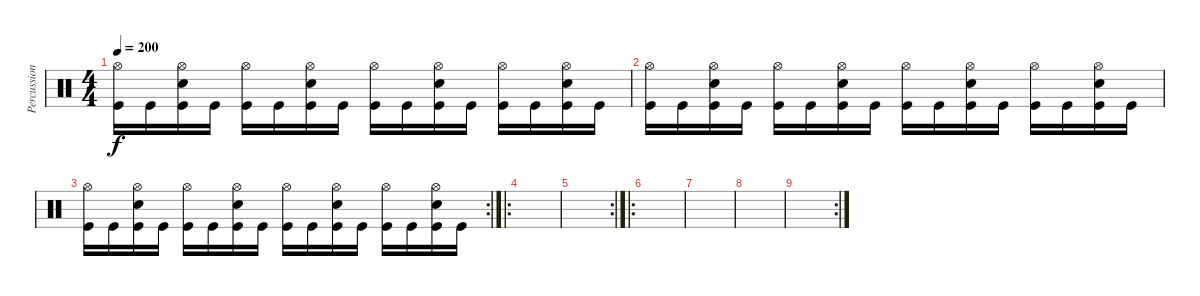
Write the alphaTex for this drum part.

\track ("Percussion" "Percussion") {instrument percussion}
\staff {score}
\articulation defaults
\ts (4 4)
\tempo 200
\clef neutral
\ks c
("Hi-Hat (open)" "Kick (hit)").16{dy f} "Kick (hit)".16 ("Hi-Hat (open)" "Snare (hit) 2" "Kick (hit)").16 "Kick (hit)".16 ("Hi-Hat (open)" "Kick (hit)").16 "Kick (hit)".16 ("Hi-Hat (open)" "Snare (hit) 2" "Kick (hit)").16 "Kick (hit)".16 ("Hi-Hat (open)" "Kick (hit)").16 "Kick (hit)".16 ("Hi-Hat (open)" "Snare (hit) 2" "Kick (hit)").16 "Kick (hit)".16 ("Hi-Hat (open)" "Kick (hit)").16 "Kick (hit)".16 ("Hi-Hat (open)" "Snare (hit) 2" "Kick (hit)").16 "Kick (hit)".16 |
("Hi-Hat (open)" "Kick (hit)").16 "Kick (hit)".16 ("Hi-Hat (open)" "Snare (hit) 2" "Kick (hit)").16 "Kick (hit)".16 ("Hi-Hat (open)" "Kick (hit)").16 "Kick (hit)".16 ("Hi-Hat (open)" "Snare (hit) 2" "Kick (hit)").16 "Kick (hit)".16 ("Hi-Hat (open)" "Kick (hit)").16 "Kick (hit)".16 ("Hi-Hat (open)" "Snare (hit) 2" "Kick (hit)").16 "Kick (hit)".16 ("Hi-Hat (open)" "Kick (hit)").16 "Kick (hit)".16 ("Hi-Hat (open)" "Snare (hit) 2" "Kick (hit)").16 "Kick (hit)".16 |
\rc 2
("Hi-Hat (open)" "Kick (hit)").16 "Kick (hit)".16 ("Hi-Hat (open)" "Snare (hit) 2" "Kick (hit)").16 "Kick (hit)".16 ("Hi-Hat (open)" "Kick (hit)").16 "Kick (hit)".16 ("Hi-Hat (open)" "Snare (hit) 2" "Kick (hit)").16 "Kick (hit)".16 ("Hi-Hat (open)" "Kick (hit)").16 "Kick (hit)".16 ("Hi-Hat (open)" "Snare (hit) 2" "Kick (hit)").16 "Kick (hit)".16 ("Hi-Hat (open)" "Kick (hit)").16 "Kick (hit)".16 ("Hi-Hat (open)" "Snare (hit) 2" "Kick (hit)").16 "Kick (hit)".16 |
\ro
|
\rc 2
|
\ro
|
|
|
\rc 2
